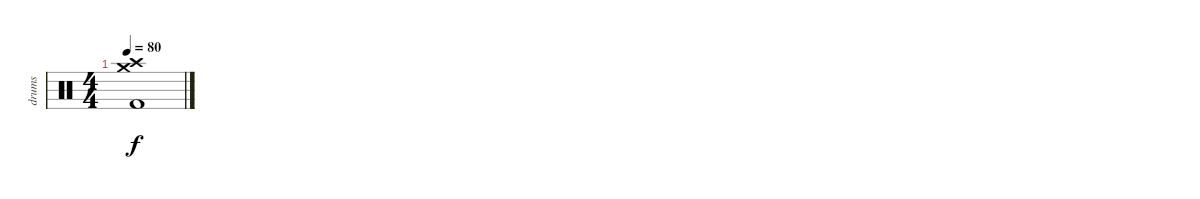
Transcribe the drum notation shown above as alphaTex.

\track ("drums" "drums") {instrument percussion}
\staff {score}
\articulation defaults
\ts (4 4)
\tempo 80
\clef neutral
\ks c
("Crash high (hit)" "Crash medium (hit)" "Kick (hit) 2").1{dy f}
